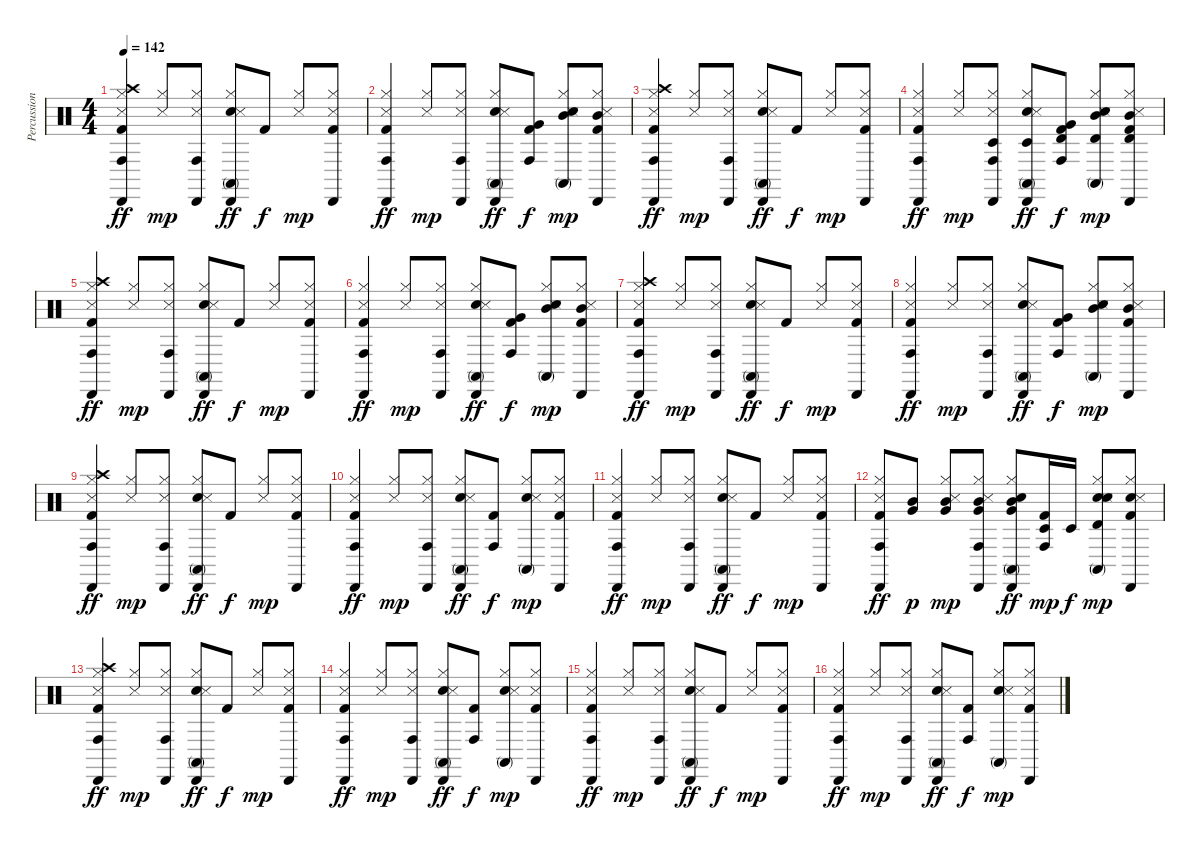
\track ("Percussion" "Percussion") {instrument percussion}
\staff {score}
\articulation defaults
\ts (4 4)
\tempo 142
\clef neutral
\ks c
("Conga high (hit)" "Cabasa (hit)" "Crash high (hit)" "Hi-Hat (closed)" "Snare (side stick) 3" "Kick (hit) 2").4{dy ff} ("Hi-Hat (closed)" "Snare (side stick) 3").8{dy mp} ("Conga high (hit)" "Cabasa (hit)" "Hi-Hat (closed)" "Snare (side stick) 3").8 ("Conga high (mute)" "Cabasa (hit)" "Hi-Hat (closed)" "Hand Clap (hit)" "Snare (side stick) 3").8{dy ff} "Kick (hit) 2".8{dy f} ("Hi-Hat (closed)" "Snare (side stick) 3").8{dy mp} ("Cabasa (hit)" "Hi-Hat (closed)" "Snare (side stick) 3" "Kick (hit) 2").8 |
("Conga high (hit)" "Cabasa (hit)" "Hi-Hat (closed)" "Snare (side stick) 3" "Kick (hit) 2").4{dy ff} ("Hi-Hat (closed)" "Snare (side stick) 3").8{dy mp} ("Conga high (hit)" "Cabasa (hit)" "Hi-Hat (closed)" "Snare (side stick) 3").8 ("Conga high (mute)" "Cabasa (hit)" "Hi-Hat (closed)" "Hand Clap (hit)" "Snare (side stick) 3").8{dy ff} ("Conga high (hit)" "Very Low Tom (hit)" "Kick (hit) 2").8{dy f} ("Conga high (mute)" "Mid Tom (hit)" "Hi-Hat (closed)" "Hand Clap (hit)" "Snare (side stick) 3").8{dy mp} ("Cabasa (hit)" "Mid Tom (hit)" "Hi-Hat (closed)" "Snare (side stick) 3" "Kick (hit) 2").8 |
("Conga high (hit)" "Cabasa (hit)" "Crash high (hit)" "Hi-Hat (closed)" "Snare (side stick) 3" "Kick (hit) 2").4{dy ff} ("Hi-Hat (closed)" "Snare (side stick) 3").8{dy mp} ("Conga high (hit)" "Cabasa (hit)" "Hi-Hat (closed)" "Snare (side stick) 3").8 ("Conga high (mute)" "Cabasa (hit)" "Hi-Hat (closed)" "Hand Clap (hit)" "Snare (side stick) 3").8{dy ff} "Kick (hit) 2".8{dy f} ("Hi-Hat (closed)" "Snare (side stick) 3").8{dy mp} ("Cabasa (hit)" "Hi-Hat (closed)" "Snare (side stick) 3" "Kick (hit) 2").8 |
("Conga high (hit)" "Cabasa (hit)" "Hi-Hat (closed)" "Snare (side stick) 3" "Kick (hit) 2").4{dy ff} ("Hi-Hat (closed)" "Snare (side stick) 3").8{dy mp} ("Timbale low (hit)" "Conga high (hit)" "Cabasa (hit)" "Hi-Hat (closed)" "Snare (side stick) 3").8 ("Timbale low (hit)" "Conga high (mute)" "Cabasa (hit)" "Hi-Hat (closed)" "Hand Clap (hit)" "Snare (side stick) 3").8{dy ff} ("Timbale high (hit)" "Conga high (hit)" "Very Low Tom (hit)" "Kick (hit) 2").8{dy f} ("Timbale high (hit)" "Conga high (mute)" "Mid Tom (hit)" "Hi-Hat (closed)" "Hand Clap (hit)" "Snare (side stick) 3").8{dy mp} ("Timbale high (hit)" "Cabasa (hit)" "Mid Tom (hit)" "Hi-Hat (closed)" "Snare (side stick) 3" "Kick (hit) 2").8 |
("Conga high (hit)" "Cabasa (hit)" "Crash high (hit)" "Hi-Hat (closed)" "Snare (side stick) 3" "Kick (hit) 2").4{dy ff} ("Hi-Hat (closed)" "Snare (side stick) 3").8{dy mp} ("Conga high (hit)" "Cabasa (hit)" "Hi-Hat (closed)" "Snare (side stick) 3").8 ("Conga high (mute)" "Cabasa (hit)" "Hi-Hat (closed)" "Hand Clap (hit)" "Snare (side stick) 3").8{dy ff} "Kick (hit) 2".8{dy f} ("Hi-Hat (closed)" "Snare (side stick) 3").8{dy mp} ("Cabasa (hit)" "Hi-Hat (closed)" "Snare (side stick) 3" "Kick (hit) 2").8 |
("Conga high (hit)" "Cabasa (hit)" "Hi-Hat (closed)" "Snare (side stick) 3" "Kick (hit) 2").4{dy ff} ("Hi-Hat (closed)" "Snare (side stick) 3").8{dy mp} ("Conga high (hit)" "Cabasa (hit)" "Hi-Hat (closed)" "Snare (side stick) 3").8 ("Conga high (mute)" "Cabasa (hit)" "Hi-Hat (closed)" "Hand Clap (hit)" "Snare (side stick) 3").8{dy ff} ("Conga high (hit)" "Very Low Tom (hit)" "Kick (hit) 2").8{dy f} ("Conga high (mute)" "Mid Tom (hit)" "Hi-Hat (closed)" "Hand Clap (hit)" "Snare (side stick) 3").8{dy mp} ("Cabasa (hit)" "Mid Tom (hit)" "Hi-Hat (closed)" "Snare (side stick) 3" "Kick (hit) 2").8 |
("Conga high (hit)" "Cabasa (hit)" "Crash high (hit)" "Hi-Hat (closed)" "Snare (side stick) 3" "Kick (hit) 2").4{dy ff} ("Hi-Hat (closed)" "Snare (side stick) 3").8{dy mp} ("Conga high (hit)" "Cabasa (hit)" "Hi-Hat (closed)" "Snare (side stick) 3").8 ("Conga high (mute)" "Cabasa (hit)" "Hi-Hat (closed)" "Hand Clap (hit)" "Snare (side stick) 3").8{dy ff} "Kick (hit) 2".8{dy f} ("Hi-Hat (closed)" "Snare (side stick) 3").8{dy mp} ("Cabasa (hit)" "Hi-Hat (closed)" "Snare (side stick) 3" "Kick (hit) 2").8 |
("Conga high (hit)" "Cabasa (hit)" "Hi-Hat (closed)" "Snare (side stick) 3" "Kick (hit) 2").4{dy ff} ("Hi-Hat (closed)" "Snare (side stick) 3").8{dy mp} ("Conga high (hit)" "Cabasa (hit)" "Hi-Hat (closed)" "Snare (side stick) 3").8 ("Conga high (mute)" "Cabasa (hit)" "Hi-Hat (closed)" "Hand Clap (hit)" "Snare (side stick) 3").8{dy ff} ("Conga high (hit)" "Very Low Tom (hit)" "Kick (hit) 2").8{dy f} ("Conga high (mute)" "Mid Tom (hit)" "Hi-Hat (closed)" "Hand Clap (hit)" "Snare (side stick) 3").8{dy mp} ("Cabasa (hit)" "Mid Tom (hit)" "Hi-Hat (closed)" "Snare (side stick) 3" "Kick (hit) 2").8 |
("Conga high (hit)" "Cabasa (hit)" "Crash high (hit)" "Hi-Hat (closed)" "Snare (side stick) 3" "Kick (hit) 2").4{dy ff} ("Hi-Hat (closed)" "Snare (side stick) 3").8{dy mp} ("Conga high (hit)" "Cabasa (hit)" "Hi-Hat (closed)" "Snare (side stick) 3").8 ("Conga high (mute)" "Cabasa (hit)" "Hi-Hat (closed)" "Hand Clap (hit)" "Snare (side stick) 3").8{dy ff} "Kick (hit) 2".8{dy f} ("Hi-Hat (closed)" "Snare (side stick) 3").8{dy mp} ("Cabasa (hit)" "Hi-Hat (closed)" "Snare (side stick) 3" "Kick (hit) 2").8 |
("Conga high (hit)" "Cabasa (hit)" "Hi-Hat (closed)" "Snare (side stick) 3" "Kick (hit) 2").4{dy ff} ("Hi-Hat (closed)" "Snare (side stick) 3").8{dy mp} ("Conga high (hit)" "Cabasa (hit)" "Hi-Hat (closed)" "Snare (side stick) 3").8 ("Conga high (mute)" "Cabasa (hit)" "Hi-Hat (closed)" "Hand Clap (hit)" "Snare (side stick) 3").8{dy ff} ("Conga high (hit)" "Kick (hit) 2").8{dy f} ("Conga high (mute)" "Hi-Hat (closed)" "Hand Clap (hit)" "Snare (side stick) 3").8{dy mp} ("Cabasa (hit)" "Hi-Hat (closed)" "Snare (side stick) 3" "Kick (hit) 2").8 |
("Conga high (hit)" "Cabasa (hit)" "Hi-Hat (closed)" "Snare (side stick) 3" "Kick (hit) 2").4{dy ff} ("Hi-Hat (closed)" "Snare (side stick) 3").8{dy mp} ("Conga high (hit)" "Cabasa (hit)" "Hi-Hat (closed)" "Snare (side stick) 3").8 ("Conga high (mute)" "Cabasa (hit)" "Hi-Hat (closed)" "Hand Clap (hit)" "Snare (side stick) 3").8{dy ff} "Kick (hit) 2".8{dy f} ("Hi-Hat (closed)" "Snare (side stick) 3").8{dy mp} ("Cabasa (hit)" "Hi-Hat (closed)" "Snare (side stick) 3" "Kick (hit) 2").8 |
("Conga high (hit)" "Cabasa (hit)" "Hi-Hat (closed)" "Snare (side stick) 3" "Kick (hit) 2").8{dy ff} ("Very Low Tom (hit)" "Mid Tom (hit)").8{dy p} ("Very Low Tom (hit)" "Mid Tom (hit)" "Hi-Hat (closed)" "Snare (side stick) 3").8{dy mp} ("Conga high (hit)" "Cabasa (hit)" "Very Low Tom (hit)" "Mid Tom (hit)" "Hi-Hat (closed)" "Snare (side stick) 3").8 ("Conga high (mute)" "Cabasa (hit)" "Very Low Tom (hit)" "Mid Tom (hit)" "Hi-Hat (closed)" "Hand Clap (hit)").8{dy ff} ("Timbale low (hit)" "Conga high (hit)" "Kick (hit) 2").16{dy mp} "Timbale low (hit)".16{dy f} ("Timbale high (hit)" "Conga high (mute)" "Hi-Hat (closed)" "Hand Clap (hit)" "Snare (hit) 2" "Snare (side stick) 3").8{dy mp} ("Cabasa (hit)" "Hi-Hat (closed)" "Snare (hit) 2" "Snare (side stick) 3" "Kick (hit) 2").8 |
("Conga high (hit)" "Cabasa (hit)" "Crash high (hit)" "Hi-Hat (closed)" "Snare (side stick) 3" "Kick (hit) 2").4{dy ff} ("Hi-Hat (closed)" "Snare (side stick) 3").8{dy mp} ("Conga high (hit)" "Cabasa (hit)" "Hi-Hat (closed)" "Snare (side stick) 3").8 ("Conga high (mute)" "Cabasa (hit)" "Hi-Hat (closed)" "Hand Clap (hit)" "Snare (side stick) 3").8{dy ff} "Kick (hit) 2".8{dy f} ("Hi-Hat (closed)" "Snare (side stick) 3").8{dy mp} ("Cabasa (hit)" "Hi-Hat (closed)" "Snare (side stick) 3" "Kick (hit) 2").8 |
("Conga high (hit)" "Cabasa (hit)" "Hi-Hat (closed)" "Snare (side stick) 3" "Kick (hit) 2").4{dy ff} ("Hi-Hat (closed)" "Snare (side stick) 3").8{dy mp} ("Conga high (hit)" "Cabasa (hit)" "Hi-Hat (closed)" "Snare (side stick) 3").8 ("Conga high (mute)" "Cabasa (hit)" "Hi-Hat (closed)" "Hand Clap (hit)" "Snare (side stick) 3").8{dy ff} ("Conga high (hit)" "Kick (hit) 2").8{dy f} ("Conga high (mute)" "Hi-Hat (closed)" "Hand Clap (hit)" "Snare (side stick) 3").8{dy mp} ("Cabasa (hit)" "Hi-Hat (closed)" "Snare (side stick) 3" "Kick (hit) 2").8 |
("Conga high (hit)" "Cabasa (hit)" "Hi-Hat (closed)" "Snare (side stick) 3" "Kick (hit) 2").4{dy ff} ("Hi-Hat (closed)" "Snare (side stick) 3").8{dy mp} ("Conga high (hit)" "Cabasa (hit)" "Hi-Hat (closed)" "Snare (side stick) 3").8 ("Conga high (mute)" "Cabasa (hit)" "Hi-Hat (closed)" "Hand Clap (hit)" "Snare (side stick) 3").8{dy ff} "Kick (hit) 2".8{dy f} ("Hi-Hat (closed)" "Snare (side stick) 3").8{dy mp} ("Cabasa (hit)" "Hi-Hat (closed)" "Snare (side stick) 3" "Kick (hit) 2").8 |
("Conga high (hit)" "Cabasa (hit)" "Hi-Hat (closed)" "Snare (side stick) 3" "Kick (hit) 2").4{dy ff} ("Hi-Hat (closed)" "Snare (side stick) 3").8{dy mp} ("Conga high (hit)" "Cabasa (hit)" "Hi-Hat (closed)" "Snare (side stick) 3").8 ("Conga high (mute)" "Cabasa (hit)" "Hi-Hat (closed)" "Hand Clap (hit)" "Snare (side stick) 3").8{dy ff} ("Conga high (hit)" "Kick (hit) 2").8{dy f} ("Conga high (mute)" "Hi-Hat (closed)" "Hand Clap (hit)" "Snare (side stick) 3").8{dy mp} ("Cabasa (hit)" "Hi-Hat (closed)" "Snare (side stick) 3" "Kick (hit) 2").8
